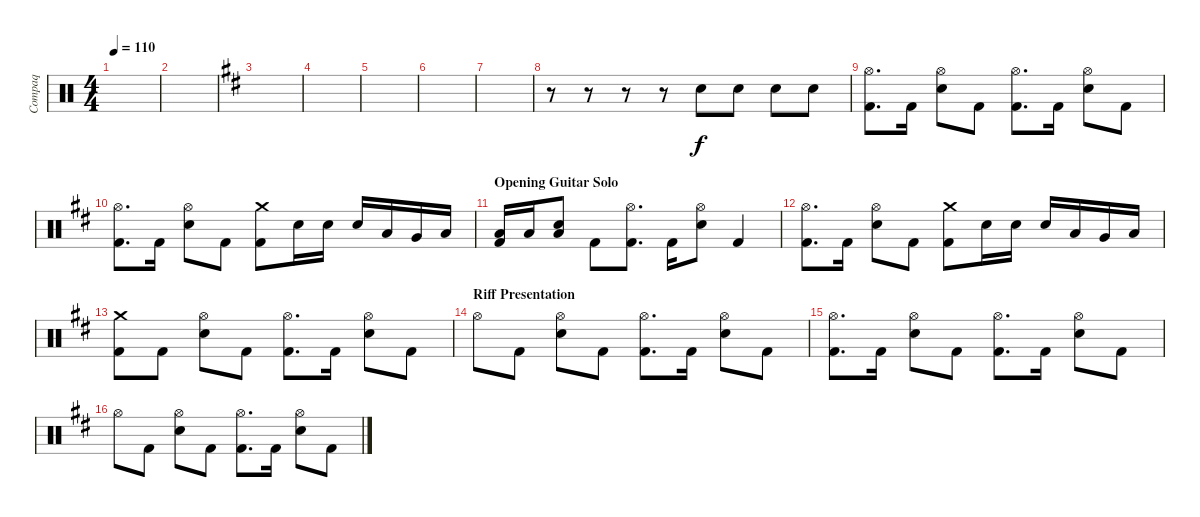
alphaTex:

\track ("Compaq" "Compaq") {instrument percussion}
\staff {score}
\articulation defaults
\ts (4 4)
\tempo 110
\clef neutral
\ks c
|
|
\ks bminor
|
|
|
|
|
r.8 r.8 r.8 r.8{balance 5} "Electric Snare (hit)".8{balance 11} "Electric Snare (hit)".8{balance 5} "Electric Snare (hit)".8{balance 11} "Electric Snare (hit)".8{balance 5} |
("Hi-Hat (open)" "Kick (hit) 2").8{d balance 8} "Kick (hit) 2".16 ("Hi-Hat (open)" "Electric Snare (hit)").8 "Kick (hit) 2".8 ("Hi-Hat (open)" "Kick (hit) 2").8{d} "Kick (hit) 2".16 ("Hi-Hat (open)" "Electric Snare (hit)").8 "Kick (hit) 2".8 |
("Hi-Hat (open)" "Kick (hit) 2").8{d} "Kick (hit) 2".16 ("Hi-Hat (open)" "Electric Snare (hit)").8 "Kick (hit) 2".8 ("Crash medium (hit)" "Kick (hit) 2").8 "Electric Snare (hit)".16 "Electric Snare (hit)".16 "Electric Snare (hit)".16 "Low Tom (hit)".16 "Very Low Tom (hit)".16 "Low Floor Tom (hit)".16 |
\section ("" "Opening Guitar Solo")
("Low Floor Tom (hit)" "Kick (hit) 2").16 "Low Floor Tom (hit)".16 ("Low Floor Tom (hit)" "Electric Snare (hit)").8 "Kick (hit) 2".8 ("Hi-Hat (open)" "Kick (hit) 2").8{d} "Kick (hit) 2".16 ("Hi-Hat (open)" "Electric Snare (hit)").8 "Kick (hit) 2".4 |
("Hi-Hat (open)" "Kick (hit) 2").8{d} "Kick (hit) 2".16 ("Hi-Hat (open)" "Electric Snare (hit)").8 "Kick (hit) 2".8 ("Crash medium (hit)" "Kick (hit) 2").8 "Electric Snare (hit)".16 "Electric Snare (hit)".16 "Electric Snare (hit)".16 "Low Tom (hit)".16 "Very Low Tom (hit)".16 "Low Floor Tom (hit)".16 |
("Crash medium (hit)" "Kick (hit) 2").8 "Kick (hit) 2".8 ("Hi-Hat (open)" "Electric Snare (hit)").8 "Kick (hit) 2".8 ("Hi-Hat (open)" "Kick (hit) 2").8{d} "Kick (hit) 2".16 ("Hi-Hat (open)" "Electric Snare (hit)").8 "Kick (hit) 2".8 |
\section ("" "Riff Presentation")
"Hi-Hat (open)".8 "Kick (hit) 2".8 ("Hi-Hat (open)" "Electric Snare (hit)").8 "Kick (hit) 2".8 ("Hi-Hat (open)" "Kick (hit) 2").8{d} "Kick (hit) 2".16 ("Hi-Hat (open)" "Electric Snare (hit)").8 "Kick (hit) 2".8 |
("Hi-Hat (open)" "Kick (hit) 2").8{d} "Kick (hit) 2".16 ("Hi-Hat (open)" "Electric Snare (hit)").8 "Kick (hit) 2".8 ("Hi-Hat (open)" "Kick (hit) 2").8{d} "Kick (hit) 2".16 ("Hi-Hat (open)" "Electric Snare (hit)").8 "Kick (hit) 2".8 |
"Hi-Hat (open)".8 "Kick (hit) 2".8 ("Hi-Hat (open)" "Electric Snare (hit)").8 "Kick (hit) 2".8 ("Hi-Hat (open)" "Kick (hit) 2").8{d} "Kick (hit) 2".16 ("Hi-Hat (open)" "Electric Snare (hit)").8 "Kick (hit) 2".8
